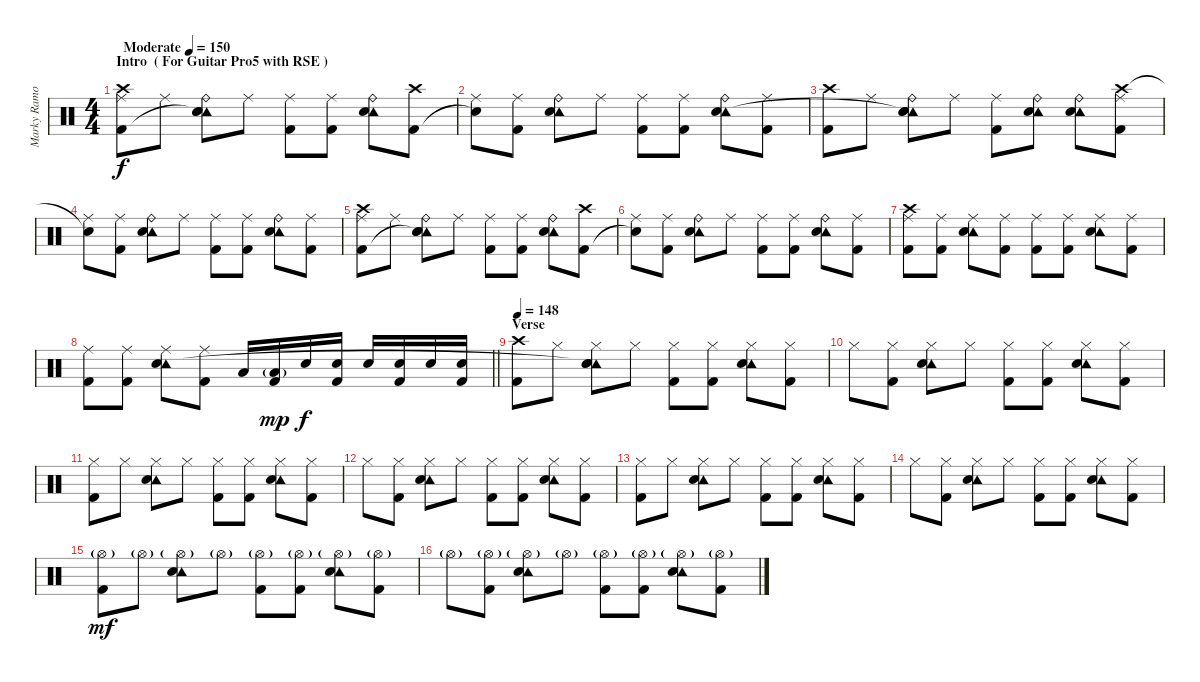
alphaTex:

\track ("Marky Ramone - Drum" "Marky Ramo") {instrument percussion}
\staff {score}
\articulation defaults
\ts (4 4)
\section ("" "Intro  ( For Guitar Pro5 with RSE )")
\tempo (150 "Moderate")
\clef neutral
\ks c
("Ride (middle)" "Crash high (hit)" "Kick (hit) 2").8{dy f} "Ride (middle)".8 ("Ride (bell)" "Tambourine (hit)" "Snare (hit)"{t} "Snare (hit) 2").8 "Ride (middle)".8 ("Ride (middle)" "Kick (hit) 2").8 ("Ride (middle)" "Kick (hit) 2").8 ("Ride (bell)" "Tambourine (hit)" "Snare (hit) 2").8 ("Crash high (hit)" "Kick (hit) 2").8 |
("Ride (middle)" "Snare (hit)"{t}).8 ("Ride (middle)" "Kick (hit) 2").8 ("Ride (bell)" "Tambourine (hit)" "Snare (hit) 2").8 "Ride (middle)".8 ("Ride (middle)" "Kick (hit) 2").8 ("Ride (middle)" "Kick (hit) 2").8 ("Ride (bell)" "Tambourine (hit)" "Snare (hit) 2").8 ("Ride (middle)" "Kick (hit) 2").8 |
("Crash high (hit)" "Kick (hit) 2").8 "Ride (middle)".8 ("Ride (bell)" "Tambourine (hit)" "Snare (hit)"{t} "Snare (hit) 2").8 "Ride (middle)".8 ("Ride (middle)" "Kick (hit) 2").8 ("Ride (bell)" "Tambourine (hit)" "Snare (hit) 2").8 ("Ride (bell)" "Tambourine (hit)" "Snare (hit) 2").8 ("Ride (middle)" "Crash high (hit)" "Kick (hit) 2").8 |
("Ride (middle)" "Snare (hit)"{t}).8 ("Ride (middle)" "Kick (hit) 2").8 ("Ride (bell)" "Tambourine (hit)" "Snare (hit) 2").8 "Ride (middle)".8 ("Ride (middle)" "Kick (hit) 2").8 ("Ride (middle)" "Kick (hit) 2").8 ("Ride (bell)" "Tambourine (hit)" "Snare (hit) 2").8 ("Ride (middle)" "Kick (hit) 2").8 |
("Ride (middle)" "Crash high (hit)" "Kick (hit) 2").8 "Ride (middle)".8 ("Ride (bell)" "Tambourine (hit)" "Snare (hit)"{t} "Snare (hit) 2").8 "Ride (middle)".8 ("Ride (middle)" "Kick (hit) 2").8 ("Ride (middle)" "Kick (hit) 2").8 ("Ride (bell)" "Tambourine (hit)" "Snare (hit) 2").8 ("Crash high (hit)" "Kick (hit) 2").8 |
("Ride (middle)" "Snare (hit)"{t}).8 ("Ride (middle)" "Kick (hit) 2").8 ("Ride (bell)" "Tambourine (hit)" "Snare (hit) 2").8 "Ride (middle)".8 ("Ride (middle)" "Kick (hit) 2").8 ("Ride (middle)" "Kick (hit) 2").8 ("Ride (bell)" "Tambourine (hit)" "Snare (hit) 2").8 ("Ride (middle)" "Kick (hit) 2").8 |
("Ride (middle)" "Crash high (hit)" "Kick (hit) 2").8 ("Ride (middle)" "Kick (hit) 2").8 ("Ride (middle)" "Tambourine (hit)" "Snare (hit) 2").8 ("Ride (middle)" "Kick (hit) 2").8 ("Ride (middle)" "Kick (hit) 2").8 ("Ride (middle)" "Kick (hit) 2").8 ("Ride (middle)" "Tambourine (hit)" "Snare (hit) 2").8 ("Ride (middle)" "Kick (hit) 2").8 |
\barLineRight lightlight
("Ride (middle)" "Kick (hit) 2").8 ("Ride (middle)" "Kick (hit) 2").8 ("Ride (middle)" "Tambourine (hit)" "Snare (hit) 2").8 ("Ride (middle)" "Kick (hit) 2").8 "Low Tom (hit)".16 ("Low Tom (hit)"{g} "Kick (hit) 2").16{dy mp} "Snare (hit) 2".16{dy f} ("Snare (hit) 2" "Kick (hit) 2").16 "Snare (hit) 2".16 ("Snare (hit) 2" "Kick (hit) 2").16 "Snare (hit) 2".16 ("Snare (hit) 2" "Kick (hit) 2").16 |
\section ("" "Verse")
\tempo 148
("Crash high (hit)" "Kick (hit) 2").8 "Hi-Hat (closed)".8 ("Hi-Hat (closed)" "Tambourine (hit)" "Snare (hit)"{t} "Snare (hit) 2").8 "Hi-Hat (closed)".8 ("Hi-Hat (closed)" "Kick (hit) 2").8 ("Hi-Hat (closed)" "Kick (hit) 2").8 ("Hi-Hat (closed)" "Tambourine (hit)" "Snare (hit) 2").8 ("Hi-Hat (closed)" "Kick (hit) 2").8 |
"Hi-Hat (closed)".8 ("Hi-Hat (closed)" "Kick (hit) 2").8 ("Hi-Hat (closed)" "Tambourine (hit)" "Snare (hit) 2").8 "Hi-Hat (closed)".8 ("Hi-Hat (closed)" "Kick (hit) 2").8 ("Hi-Hat (closed)" "Kick (hit) 2").8 ("Hi-Hat (closed)" "Tambourine (hit)" "Snare (hit) 2").8 ("Hi-Hat (closed)" "Kick (hit) 2").8 |
("Hi-Hat (closed)" "Kick (hit) 2").8 "Hi-Hat (closed)".8 ("Hi-Hat (closed)" "Tambourine (hit)" "Snare (hit) 2").8 "Hi-Hat (closed)".8 ("Hi-Hat (closed)" "Kick (hit) 2").8 ("Hi-Hat (closed)" "Kick (hit) 2").8 ("Hi-Hat (closed)" "Tambourine (hit)" "Snare (hit) 2").8 ("Hi-Hat (closed)" "Kick (hit) 2").8 |
"Hi-Hat (closed)".8 ("Hi-Hat (closed)" "Kick (hit) 2").8 ("Hi-Hat (closed)" "Tambourine (hit)" "Snare (hit) 2").8 "Hi-Hat (closed)".8 ("Hi-Hat (closed)" "Kick (hit) 2").8 ("Hi-Hat (closed)" "Kick (hit) 2").8 ("Hi-Hat (closed)" "Tambourine (hit)" "Snare (hit) 2").8 ("Hi-Hat (closed)" "Kick (hit) 2").8 |
("Hi-Hat (closed)" "Kick (hit) 2").8 "Hi-Hat (closed)".8 ("Hi-Hat (closed)" "Tambourine (hit)" "Snare (hit) 2").8 "Hi-Hat (closed)".8 ("Hi-Hat (closed)" "Kick (hit) 2").8 ("Hi-Hat (closed)" "Kick (hit) 2").8 ("Hi-Hat (closed)" "Tambourine (hit)" "Snare (hit) 2").8 ("Hi-Hat (closed)" "Kick (hit) 2").8 |
"Hi-Hat (closed)".8 ("Hi-Hat (closed)" "Kick (hit) 2").8 ("Hi-Hat (closed)" "Tambourine (hit)" "Snare (hit) 2").8 "Hi-Hat (closed)".8 ("Hi-Hat (closed)" "Kick (hit) 2").8 ("Hi-Hat (closed)" "Kick (hit) 2").8 ("Hi-Hat (closed)" "Tambourine (hit)" "Snare (hit) 2").8 ("Hi-Hat (closed)" "Kick (hit) 2").8 |
("Hi-Hat (open)"{g} "Kick (hit) 2").8{dy mf} "Hi-Hat (open)"{g}.8 ("Hi-Hat (open)"{g} "Tambourine (hit)" "Snare (hit) 2").8 "Hi-Hat (open)"{g}.8 ("Hi-Hat (open)"{g} "Kick (hit) 2").8 ("Hi-Hat (open)"{g} "Kick (hit) 2").8 ("Hi-Hat (open)"{g} "Tambourine (hit)" "Snare (hit) 2").8 ("Hi-Hat (open)"{g} "Kick (hit) 2").8 |
"Hi-Hat (open)"{g}.8 ("Hi-Hat (open)"{g} "Kick (hit) 2").8 ("Hi-Hat (open)"{g} "Tambourine (hit)" "Snare (hit) 2").8 "Hi-Hat (open)"{g}.8 ("Hi-Hat (open)"{g} "Kick (hit) 2").8 ("Hi-Hat (open)"{g} "Kick (hit) 2").8 ("Hi-Hat (open)"{g} "Tambourine (hit)" "Snare (hit) 2").8 ("Hi-Hat (open)"{g} "Kick (hit) 2").8
